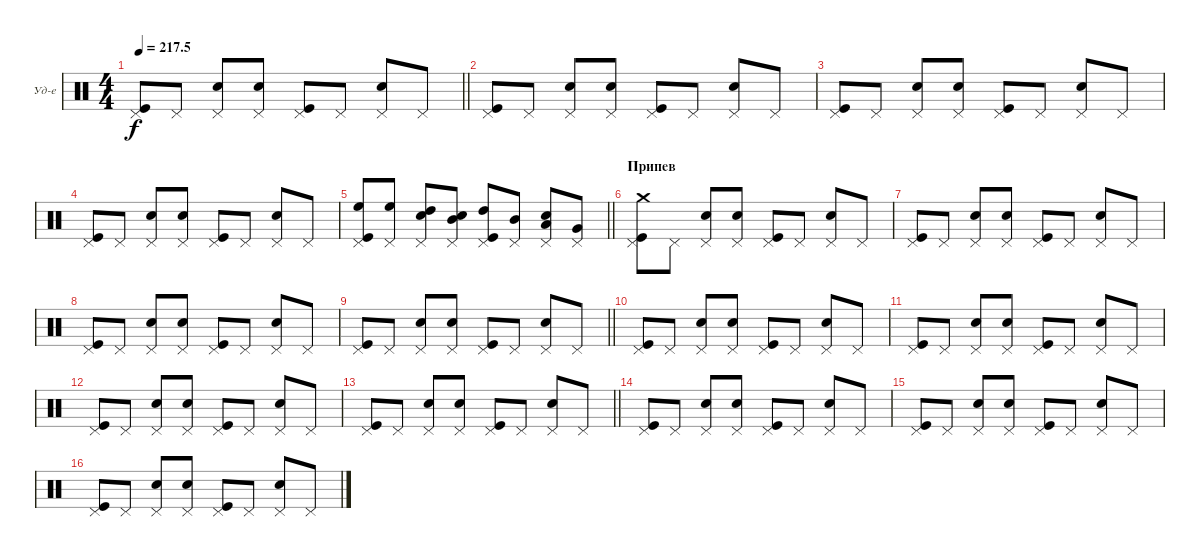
\bracketExtendMode groupsimilarinstruments
\firstSystemTrackNameOrientation horizontal
\otherSystemsTrackNameOrientation horizontal
\track ("Ударные" "Уд-е") {instrument percussion}
\staff {score}
\articulation defaults
\ts (4 4)
\tempo
217.5
\accidentals auto
\clef neutral
\ottava regular
\simile none
\barLineRight lightlight
\ks c
("Pedal Hi-Hat (hit)" "Kick (hit)").8{dy f} "Pedal Hi-Hat (hit)".8 ("Pedal Hi-Hat (hit)" "Snare (hit) 2").8 ("Pedal Hi-Hat (hit)" "Snare (hit) 2").8 ("Pedal Hi-Hat (hit)" "Kick (hit)").8 "Pedal Hi-Hat (hit)".8 ("Pedal Hi-Hat (hit)" "Snare (hit) 2").8 "Pedal Hi-Hat (hit)".8 |
("Pedal Hi-Hat (hit)" "Kick (hit)").8 "Pedal Hi-Hat (hit)".8 ("Pedal Hi-Hat (hit)" "Snare (hit) 2").8 ("Pedal Hi-Hat (hit)" "Snare (hit) 2").8 ("Pedal Hi-Hat (hit)" "Kick (hit)").8 "Pedal Hi-Hat (hit)".8 ("Pedal Hi-Hat (hit)" "Snare (hit) 2").8 "Pedal Hi-Hat (hit)".8 |
("Pedal Hi-Hat (hit)" "Kick (hit)").8 "Pedal Hi-Hat (hit)".8 ("Pedal Hi-Hat (hit)" "Snare (hit) 2").8 ("Pedal Hi-Hat (hit)" "Snare (hit) 2").8 ("Pedal Hi-Hat (hit)" "Kick (hit)").8 "Pedal Hi-Hat (hit)".8 ("Pedal Hi-Hat (hit)" "Snare (hit) 2").8 "Pedal Hi-Hat (hit)".8 |
("Pedal Hi-Hat (hit)" "Kick (hit)").8 "Pedal Hi-Hat (hit)".8 ("Pedal Hi-Hat (hit)" "Snare (hit) 2").8 ("Pedal Hi-Hat (hit)" "Snare (hit) 2").8 ("Pedal Hi-Hat (hit)" "Kick (hit)").8 "Pedal Hi-Hat (hit)".8 ("Pedal Hi-Hat (hit)" "Snare (hit) 2").8 "Pedal Hi-Hat (hit)".8 |
\barLineRight lightlight
("Pedal Hi-Hat (hit)" "Kick (hit)" "High Floor Tom (hit)").8 ("Pedal Hi-Hat (hit)" "High Floor Tom (hit)").8 ("Pedal Hi-Hat (hit)" "Snare (hit) 2" "High Tom (hit)").8 ("Pedal Hi-Hat (hit)" "Snare (hit) 2" "Mid Tom (hit)").8 ("Pedal Hi-Hat (hit)" "Kick (hit)" "High Tom (hit)").8 ("Pedal Hi-Hat (hit)" "Mid Tom (hit)").8 ("Pedal Hi-Hat (hit)" "Snare (hit) 2" "Low Tom (hit)").8 ("Pedal Hi-Hat (hit)" "Very Low Tom (hit)").8 |
\section ("" "Припев")
("Pedal Hi-Hat (hit)" "Kick (hit)" "Crash medium (hit)").8 "Pedal Hi-Hat (hit)".8 ("Pedal Hi-Hat (hit)" "Snare (hit) 2").8 ("Pedal Hi-Hat (hit)" "Snare (hit) 2").8 ("Pedal Hi-Hat (hit)" "Kick (hit)").8 "Pedal Hi-Hat (hit)".8 ("Pedal Hi-Hat (hit)" "Snare (hit) 2").8 "Pedal Hi-Hat (hit)".8 |
("Pedal Hi-Hat (hit)" "Kick (hit)").8 "Pedal Hi-Hat (hit)".8 ("Pedal Hi-Hat (hit)" "Snare (hit) 2").8 ("Pedal Hi-Hat (hit)" "Snare (hit) 2").8 ("Pedal Hi-Hat (hit)" "Kick (hit)").8 "Pedal Hi-Hat (hit)".8 ("Pedal Hi-Hat (hit)" "Snare (hit) 2").8 "Pedal Hi-Hat (hit)".8 |
("Pedal Hi-Hat (hit)" "Kick (hit)").8 "Pedal Hi-Hat (hit)".8 ("Pedal Hi-Hat (hit)" "Snare (hit) 2").8 ("Pedal Hi-Hat (hit)" "Snare (hit) 2").8 ("Pedal Hi-Hat (hit)" "Kick (hit)").8 "Pedal Hi-Hat (hit)".8 ("Pedal Hi-Hat (hit)" "Snare (hit) 2").8 "Pedal Hi-Hat (hit)".8 |
\barLineRight lightlight
("Pedal Hi-Hat (hit)" "Kick (hit)").8 "Pedal Hi-Hat (hit)".8 ("Pedal Hi-Hat (hit)" "Snare (hit) 2").8 ("Pedal Hi-Hat (hit)" "Snare (hit) 2").8 ("Pedal Hi-Hat (hit)" "Kick (hit)").8 "Pedal Hi-Hat (hit)".8 ("Pedal Hi-Hat (hit)" "Snare (hit) 2").8 "Pedal Hi-Hat (hit)".8 |
("Pedal Hi-Hat (hit)" "Kick (hit)").8 "Pedal Hi-Hat (hit)".8 ("Pedal Hi-Hat (hit)" "Snare (hit) 2").8 ("Pedal Hi-Hat (hit)" "Snare (hit) 2").8 ("Pedal Hi-Hat (hit)" "Kick (hit)").8 "Pedal Hi-Hat (hit)".8 ("Pedal Hi-Hat (hit)" "Snare (hit) 2").8 "Pedal Hi-Hat (hit)".8 |
("Pedal Hi-Hat (hit)" "Kick (hit)").8 "Pedal Hi-Hat (hit)".8 ("Pedal Hi-Hat (hit)" "Snare (hit) 2").8 ("Pedal Hi-Hat (hit)" "Snare (hit) 2").8 ("Pedal Hi-Hat (hit)" "Kick (hit)").8 "Pedal Hi-Hat (hit)".8 ("Pedal Hi-Hat (hit)" "Snare (hit) 2").8 "Pedal Hi-Hat (hit)".8 |
("Pedal Hi-Hat (hit)" "Kick (hit)").8 "Pedal Hi-Hat (hit)".8 ("Pedal Hi-Hat (hit)" "Snare (hit) 2").8 ("Pedal Hi-Hat (hit)" "Snare (hit) 2").8 ("Pedal Hi-Hat (hit)" "Kick (hit)").8 "Pedal Hi-Hat (hit)".8 ("Pedal Hi-Hat (hit)" "Snare (hit) 2").8 "Pedal Hi-Hat (hit)".8 |
\barLineRight lightlight
("Pedal Hi-Hat (hit)" "Kick (hit)").8 "Pedal Hi-Hat (hit)".8 ("Pedal Hi-Hat (hit)" "Snare (hit) 2").8 ("Pedal Hi-Hat (hit)" "Snare (hit) 2").8 ("Pedal Hi-Hat (hit)" "Kick (hit)").8 "Pedal Hi-Hat (hit)".8 ("Pedal Hi-Hat (hit)" "Snare (hit) 2").8 "Pedal Hi-Hat (hit)".8 |
("Pedal Hi-Hat (hit)" "Kick (hit)").8 "Pedal Hi-Hat (hit)".8 ("Pedal Hi-Hat (hit)" "Snare (hit) 2").8 ("Pedal Hi-Hat (hit)" "Snare (hit) 2").8 ("Pedal Hi-Hat (hit)" "Kick (hit)").8 "Pedal Hi-Hat (hit)".8 ("Pedal Hi-Hat (hit)" "Snare (hit) 2").8 "Pedal Hi-Hat (hit)".8 |
("Pedal Hi-Hat (hit)" "Kick (hit)").8 "Pedal Hi-Hat (hit)".8 ("Pedal Hi-Hat (hit)" "Snare (hit) 2").8 ("Pedal Hi-Hat (hit)" "Snare (hit) 2").8 ("Pedal Hi-Hat (hit)" "Kick (hit)").8 "Pedal Hi-Hat (hit)".8 ("Pedal Hi-Hat (hit)" "Snare (hit) 2").8 "Pedal Hi-Hat (hit)".8 |
("Pedal Hi-Hat (hit)" "Kick (hit)").8 "Pedal Hi-Hat (hit)".8 ("Pedal Hi-Hat (hit)" "Snare (hit) 2").8 ("Pedal Hi-Hat (hit)" "Snare (hit) 2").8 ("Pedal Hi-Hat (hit)" "Kick (hit)").8 "Pedal Hi-Hat (hit)".8 ("Pedal Hi-Hat (hit)" "Snare (hit) 2").8 "Pedal Hi-Hat (hit)".8
